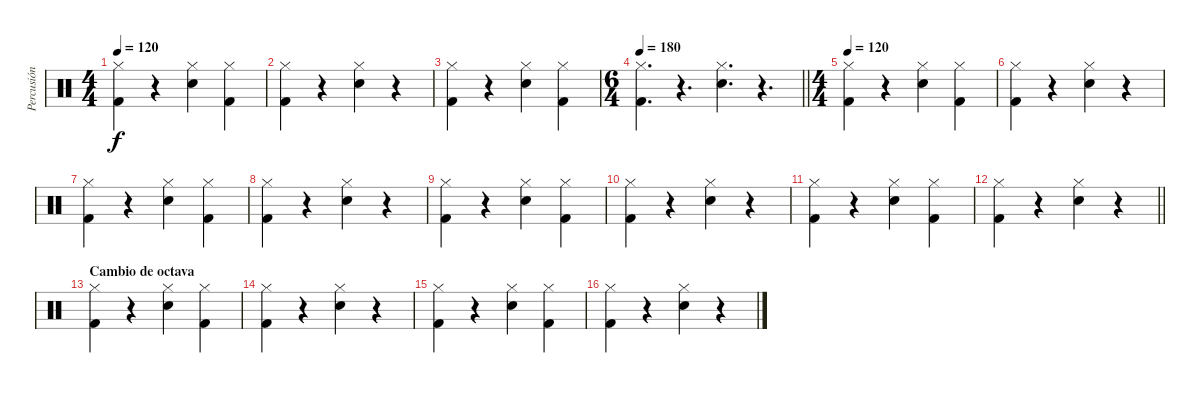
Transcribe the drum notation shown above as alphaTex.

\track ("Percusión" "Percusión") {instrument percussion}
\staff {score}
\articulation defaults
\ts (4 4)
\tempo 120
\clef neutral
\ks c
("Hi-Hat (closed)" "Kick (hit) 2").4{dy f} r.4 ("Hi-Hat (closed)" "Snare (hit) 2").4 ("Hi-Hat (closed)" "Kick (hit) 2").4 |
("Hi-Hat (closed)" "Kick (hit) 2").4 r.4 ("Hi-Hat (closed)" "Snare (hit) 2").4 r.4 |
("Hi-Hat (closed)" "Kick (hit) 2").4 r.4 ("Hi-Hat (closed)" "Snare (hit) 2").4 ("Hi-Hat (closed)" "Kick (hit) 2").4 |
\ts (6 4)
\tempo 180
\barLineRight lightlight
("Hi-Hat (closed)" "Kick (hit) 2").4{d} r.4{d} ("Hi-Hat (closed)" "Snare (hit) 2").4{d} r.4{d} |
\ts (4 4)
\tempo 120
("Hi-Hat (closed)" "Kick (hit) 2").4 r.4 ("Hi-Hat (closed)" "Snare (hit) 2").4 ("Hi-Hat (closed)" "Kick (hit) 2").4 |
("Hi-Hat (closed)" "Kick (hit) 2").4 r.4 ("Hi-Hat (closed)" "Snare (hit) 2").4 r.4 |
("Hi-Hat (closed)" "Kick (hit) 2").4 r.4 ("Hi-Hat (closed)" "Snare (hit) 2").4 ("Hi-Hat (closed)" "Kick (hit) 2").4 |
("Hi-Hat (closed)" "Kick (hit) 2").4 r.4 ("Hi-Hat (closed)" "Snare (hit) 2").4 r.4 |
("Hi-Hat (closed)" "Kick (hit) 2").4 r.4 ("Hi-Hat (closed)" "Snare (hit) 2").4 ("Hi-Hat (closed)" "Kick (hit) 2").4 |
("Hi-Hat (closed)" "Kick (hit) 2").4 r.4 ("Hi-Hat (closed)" "Snare (hit) 2").4 r.4 |
("Hi-Hat (closed)" "Kick (hit) 2").4 r.4 ("Hi-Hat (closed)" "Snare (hit) 2").4 ("Hi-Hat (closed)" "Kick (hit) 2").4 |
\barLineRight lightlight
("Hi-Hat (closed)" "Kick (hit) 2").4 r.4 ("Hi-Hat (closed)" "Snare (hit) 2").4 r.4 |
\section ("" "Cambio de octava")
("Hi-Hat (closed)" "Kick (hit) 2").4 r.4 ("Hi-Hat (closed)" "Snare (hit) 2").4 ("Hi-Hat (closed)" "Kick (hit) 2").4 |
("Hi-Hat (closed)" "Kick (hit) 2").4 r.4 ("Hi-Hat (closed)" "Snare (hit) 2").4 r.4 |
("Hi-Hat (closed)" "Kick (hit) 2").4 r.4 ("Hi-Hat (closed)" "Snare (hit) 2").4 ("Hi-Hat (closed)" "Kick (hit) 2").4 |
("Hi-Hat (closed)" "Kick (hit) 2").4 r.4 ("Hi-Hat (closed)" "Snare (hit) 2").4 r.4
